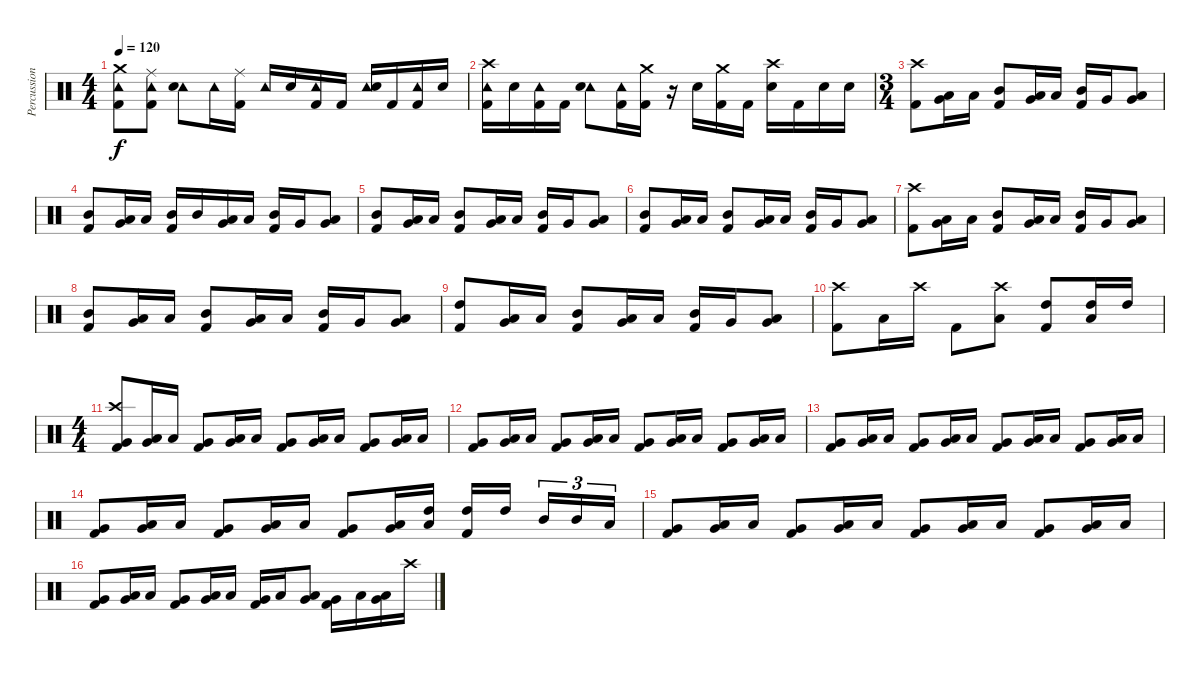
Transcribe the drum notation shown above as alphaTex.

\track ("Percussion" "Percussion") {instrument percussion}
\staff {score}
\articulation defaults
\ts (4 4)
\tempo 120
\clef neutral
\ks c
("Crash medium (hit)" "Tambourine (hit)" "Kick (hit) 2").8{dy f} ("Ride (middle)" "Tambourine (hit)" "Kick (hit) 2").8 ("Tambourine (hit)" "Snare (hit) 2").8 "Tambourine (hit)".16 ("Ride (middle)" "Kick (hit) 2").16 "Tambourine (hit)".16 "Snare (hit) 2".16 ("Tambourine (hit)" "Kick (hit) 2").16 "Kick (hit) 2".16 ("Tambourine (hit)" "Snare (hit) 2").16 "Kick (hit) 2".16 ("Tambourine (hit)" "Kick (hit) 2").16 "Snare (hit) 2".16 |
("Crash high (hit)" "Tambourine (hit)" "Kick (hit) 2").16 "Snare (hit) 2".16 ("Tambourine (hit)" "Kick (hit) 2").16 "Kick (hit) 2".16 ("Tambourine (hit)" "Snare (hit) 2").8 ("Tambourine (hit)" "Kick (hit) 2").16 ("Crash medium (hit)" "Kick (hit) 2").16 r.16 "Snare (hit) 2".16 ("Crash medium (hit)" "Kick (hit) 2").16 "Kick (hit) 2".16 ("Crash high (hit)" "Snare (hit) 2").16 "Kick (hit) 2".16 "Snare (hit) 2".16 "Snare (hit) 2".16 |
\ts (3 4)
("Crash high (hit)" "Kick (hit) 2").8 ("Low Tom (hit)" "Very Low Tom (hit)").16 "Low Tom (hit)".16 ("Mid Tom (hit)" "Kick (hit) 2").8 ("Low Tom (hit)" "Very Low Tom (hit)").16 "Low Tom (hit)".16 ("Mid Tom (hit)" "Kick (hit) 2").16 "Very Low Tom (hit)".16 ("Low Tom (hit)" "Very Low Tom (hit)").8 |
("Mid Tom (hit)" "Kick (hit) 2").8 ("Low Tom (hit)" "Very Low Tom (hit)").16 "Low Tom (hit)".16 ("Mid Tom (hit)" "Kick (hit) 2").16 "Mid Tom (hit)".16 ("Low Tom (hit)" "Very Low Tom (hit)").16 "Low Tom (hit)".16 ("Mid Tom (hit)" "Kick (hit) 2").16 "Very Low Tom (hit)".16 ("Low Tom (hit)" "Very Low Tom (hit)").8 |
("Mid Tom (hit)" "Kick (hit) 2").8 ("Low Tom (hit)" "Very Low Tom (hit)").16 "Low Tom (hit)".16 ("Mid Tom (hit)" "Kick (hit) 2").8 ("Low Tom (hit)" "Very Low Tom (hit)").16 "Low Tom (hit)".16 ("Mid Tom (hit)" "Kick (hit) 2").16 "Very Low Tom (hit)".16 ("Low Tom (hit)" "Very Low Tom (hit)").8 |
("Mid Tom (hit)" "Kick (hit) 2").8 ("Low Tom (hit)" "Very Low Tom (hit)").16 "Low Tom (hit)".16 ("Mid Tom (hit)" "Kick (hit) 2").8 ("Low Tom (hit)" "Very Low Tom (hit)").16 "Low Tom (hit)".16 ("Mid Tom (hit)" "Kick (hit) 2").16 "Very Low Tom (hit)".16 ("Low Tom (hit)" "Very Low Tom (hit)").8 |
("Crash high (hit)" "Kick (hit) 2").8 ("Low Tom (hit)" "Very Low Tom (hit)").16 "Low Tom (hit)".16 ("Mid Tom (hit)" "Kick (hit) 2").8 ("Low Tom (hit)" "Very Low Tom (hit)").16 "Low Tom (hit)".16 ("Mid Tom (hit)" "Kick (hit) 2").16 "Very Low Tom (hit)".16 ("Low Tom (hit)" "Very Low Tom (hit)").8 |
("Mid Tom (hit)" "Kick (hit) 2").8 ("Low Tom (hit)" "Very Low Tom (hit)").16 "Low Tom (hit)".16 ("Mid Tom (hit)" "Kick (hit) 2").8 ("Low Tom (hit)" "Very Low Tom (hit)").16 "Low Tom (hit)".16 ("Mid Tom (hit)" "Kick (hit) 2").16 "Very Low Tom (hit)".16 ("Low Tom (hit)" "Very Low Tom (hit)").8 |
("High Tom (hit)" "Kick (hit) 2").8 ("Low Tom (hit)" "Very Low Tom (hit)").16 "Low Tom (hit)".16 ("Mid Tom (hit)" "Kick (hit) 2").8 ("Low Tom (hit)" "Very Low Tom (hit)").16 "Low Tom (hit)".16 ("Mid Tom (hit)" "Kick (hit) 2").16 "Very Low Tom (hit)".16 ("Low Tom (hit)" "Very Low Tom (hit)").8 |
("Crash high (hit)" "Kick (hit) 2").8 "Low Tom (hit)".16 "Crash high (hit)".16 "Kick (hit) 2".8 ("Crash high (hit)" "Low Tom (hit)").8 ("High Tom (hit)" "Kick (hit) 2").8 ("High Tom (hit)" "Low Tom (hit)").16 "High Tom (hit)".16 |
\ts (4 4)
("Crash high (hit)" "Very Low Tom (hit)" "Kick (hit) 2").8 ("Low Tom (hit)" "Very Low Tom (hit)").16 "Low Tom (hit)".16 ("Very Low Tom (hit)" "Kick (hit) 2").8 ("Low Tom (hit)" "Very Low Tom (hit)").16 "Low Tom (hit)".16 ("Very Low Tom (hit)" "Kick (hit) 2").8 ("Low Tom (hit)" "Very Low Tom (hit)").16 "Low Tom (hit)".16 ("Very Low Tom (hit)" "Kick (hit) 2").8 ("Low Tom (hit)" "Very Low Tom (hit)").16 "Low Tom (hit)".16 |
("Very Low Tom (hit)" "Kick (hit) 2").8 ("Low Tom (hit)" "Very Low Tom (hit)").16 "Low Tom (hit)".16 ("Very Low Tom (hit)" "Kick (hit) 2").8 ("Low Tom (hit)" "Very Low Tom (hit)").16 "Low Tom (hit)".16 ("Very Low Tom (hit)" "Kick (hit) 2").8 ("Low Tom (hit)" "Very Low Tom (hit)").16 "Low Tom (hit)".16 ("Very Low Tom (hit)" "Kick (hit) 2").8 ("Low Tom (hit)" "Very Low Tom (hit)").16 "Low Tom (hit)".16 |
("Very Low Tom (hit)" "Kick (hit) 2").8 ("Low Tom (hit)" "Very Low Tom (hit)").16 "Low Tom (hit)".16 ("Very Low Tom (hit)" "Kick (hit) 2").8 ("Low Tom (hit)" "Very Low Tom (hit)").16 "Low Tom (hit)".16 ("Very Low Tom (hit)" "Kick (hit) 2").8 ("Low Tom (hit)" "Very Low Tom (hit)").16 "Low Tom (hit)".16 ("Very Low Tom (hit)" "Kick (hit) 2").8 ("Low Tom (hit)" "Very Low Tom (hit)").16 "Low Tom (hit)".16 |
("Very Low Tom (hit)" "Kick (hit) 2").8 ("Low Tom (hit)" "Very Low Tom (hit)").16 "Low Tom (hit)".16 ("Very Low Tom (hit)" "Kick (hit) 2").8 ("Low Tom (hit)" "Very Low Tom (hit)").16 "Low Tom (hit)".16 ("Very Low Tom (hit)" "Kick (hit) 2").8 ("Low Tom (hit)" "Very Low Tom (hit)").16 ("High Tom (hit)" "Low Tom (hit)").16 ("High Tom (hit)" "Kick (hit) 2").16 "High Tom (hit)".16 "Mid Tom (hit)".16{tu (3 2)} "Mid Tom (hit)".16{tu (3 2)} "Low Tom (hit)".16{tu (3 2)} |
("Very Low Tom (hit)" "Kick (hit) 2").8 ("Low Tom (hit)" "Very Low Tom (hit)").16 "Low Tom (hit)".16 ("Very Low Tom (hit)" "Kick (hit) 2").8 ("Low Tom (hit)" "Very Low Tom (hit)").16 "Low Tom (hit)".16 ("Very Low Tom (hit)" "Kick (hit) 2").8 ("Low Tom (hit)" "Very Low Tom (hit)").16 "Low Tom (hit)".16 ("Very Low Tom (hit)" "Kick (hit) 2").8 ("Low Tom (hit)" "Very Low Tom (hit)").16 "Low Tom (hit)".16 |
("Very Low Tom (hit)" "Kick (hit) 2").8 ("Low Tom (hit)" "Very Low Tom (hit)").16 "Low Tom (hit)".16 ("Very Low Tom (hit)" "Kick (hit) 2").8 ("Low Tom (hit)" "Very Low Tom (hit)").16 "Low Tom (hit)".16 ("Very Low Tom (hit)" "Kick (hit) 2").16 "Low Tom (hit)".16 ("Low Tom (hit)" "Very Low Tom (hit)").8 ("Very Low Tom (hit)" "Kick (hit) 2").16 "Low Tom (hit)".16 ("Low Tom (hit)" "Very Low Tom (hit)").16 "Crash high (hit)".16
